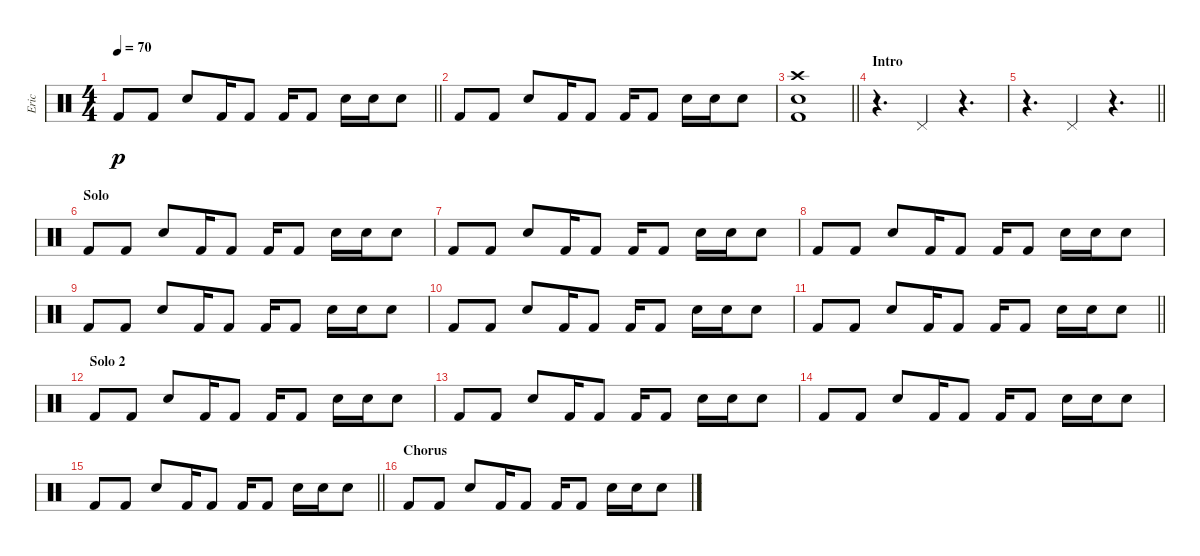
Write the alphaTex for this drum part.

\track ("Eric" "Eric") {instrument percussion}
\staff {score}
\articulation defaults
\ts (4 4)
\tempo 70
\clef neutral
\barLineRight lightlight
\ks c "Kick (hit) 2".8{dy p} "Kick (hit) 2".8 "Electric Snare (hit)".8 "Kick (hit) 2".16 "Kick (hit) 2".8 "Kick (hit) 2".16 "Kick (hit) 2".8 "Electric Snare (hit)".16 "Electric Snare (hit)".16 "Electric Snare (hit)".8
|
"Kick (hit) 2".8 "Kick (hit) 2".8 "Electric Snare (hit)".8 "Kick (hit) 2".16 "Kick (hit) 2".8 "Kick (hit) 2".16 "Kick (hit) 2".8 "Electric Snare (hit)".16 "Electric Snare (hit)".16 "Electric Snare (hit)".8 |
\barLineRight lightlight
("Crash high (hit)" "Electric Snare (hit)" "Kick (hit) 2").1 |
\section ("" "Intro")
r.4{d} "Pedal Hi-Hat (hit)".4 r.4{d} |
\barLineRight lightlight
r.4{d} "Pedal Hi-Hat (hit)".4 r.4{d} |
\section ("" "Solo")
"Kick (hit) 2".8 "Kick (hit) 2".8 "Electric Snare (hit)".8 "Kick (hit) 2".16 "Kick (hit) 2".8 "Kick (hit) 2".16 "Kick (hit) 2".8 "Electric Snare (hit)".16 "Electric Snare (hit)".16 "Electric Snare (hit)".8 |
"Kick (hit) 2".8 "Kick (hit) 2".8 "Electric Snare (hit)".8 "Kick (hit) 2".16 "Kick (hit) 2".8 "Kick (hit) 2".16 "Kick (hit) 2".8 "Electric Snare (hit)".16 "Electric Snare (hit)".16 "Electric Snare (hit)".8 |
"Kick (hit) 2".8 "Kick (hit) 2".8 "Electric Snare (hit)".8 "Kick (hit) 2".16 "Kick (hit) 2".8 "Kick (hit) 2".16 "Kick (hit) 2".8 "Electric Snare (hit)".16 "Electric Snare (hit)".16 "Electric Snare (hit)".8 |
"Kick (hit) 2".8 "Kick (hit) 2".8 "Electric Snare (hit)".8 "Kick (hit) 2".16 "Kick (hit) 2".8 "Kick (hit) 2".16 "Kick (hit) 2".8 "Electric Snare (hit)".16 "Electric Snare (hit)".16 "Electric Snare (hit)".8 |
"Kick (hit) 2".8 "Kick (hit) 2".8 "Electric Snare (hit)".8 "Kick (hit) 2".16 "Kick (hit) 2".8 "Kick (hit) 2".16 "Kick (hit) 2".8 "Electric Snare (hit)".16 "Electric Snare (hit)".16 "Electric Snare (hit)".8 |
\barLineRight lightlight "Kick (hit) 2".8 "Kick (hit) 2".8 "Electric Snare (hit)".8 "Kick (hit) 2".16 "Kick (hit) 2".8 "Kick (hit) 2".16 "Kick (hit) 2".8 "Electric Snare (hit)".16 "Electric Snare (hit)".16 "Electric Snare (hit)".8
|
\section ("" "Solo 2")
"Kick (hit) 2".8 "Kick (hit) 2".8 "Electric Snare (hit)".8 "Kick (hit) 2".16 "Kick (hit) 2".8 "Kick (hit) 2".16 "Kick (hit) 2".8 "Electric Snare (hit)".16 "Electric Snare (hit)".16 "Electric Snare (hit)".8 |
"Kick (hit) 2".8 "Kick (hit) 2".8 "Electric Snare (hit)".8 "Kick (hit) 2".16 "Kick (hit) 2".8 "Kick (hit) 2".16 "Kick (hit) 2".8 "Electric Snare (hit)".16 "Electric Snare (hit)".16 "Electric Snare (hit)".8 |
"Kick (hit) 2".8 "Kick (hit) 2".8 "Electric Snare (hit)".8 "Kick (hit) 2".16 "Kick (hit) 2".8 "Kick (hit) 2".16 "Kick (hit) 2".8 "Electric Snare (hit)".16 "Electric Snare (hit)".16 "Electric Snare (hit)".8 |
\barLineRight lightlight "Kick (hit) 2".8 "Kick (hit) 2".8 "Electric Snare (hit)".8 "Kick (hit) 2".16 "Kick (hit) 2".8 "Kick (hit) 2".16 "Kick (hit) 2".8 "Electric Snare (hit)".16 "Electric Snare (hit)".16 "Electric Snare (hit)".8
|
\section ("" "Chorus")
"Kick (hit) 2".8 "Kick (hit) 2".8 "Electric Snare (hit)".8 "Kick (hit) 2".16 "Kick (hit) 2".8 "Kick (hit) 2".16 "Kick (hit) 2".8 "Electric Snare (hit)".16 "Electric Snare (hit)".16 "Electric Snare (hit)".8
